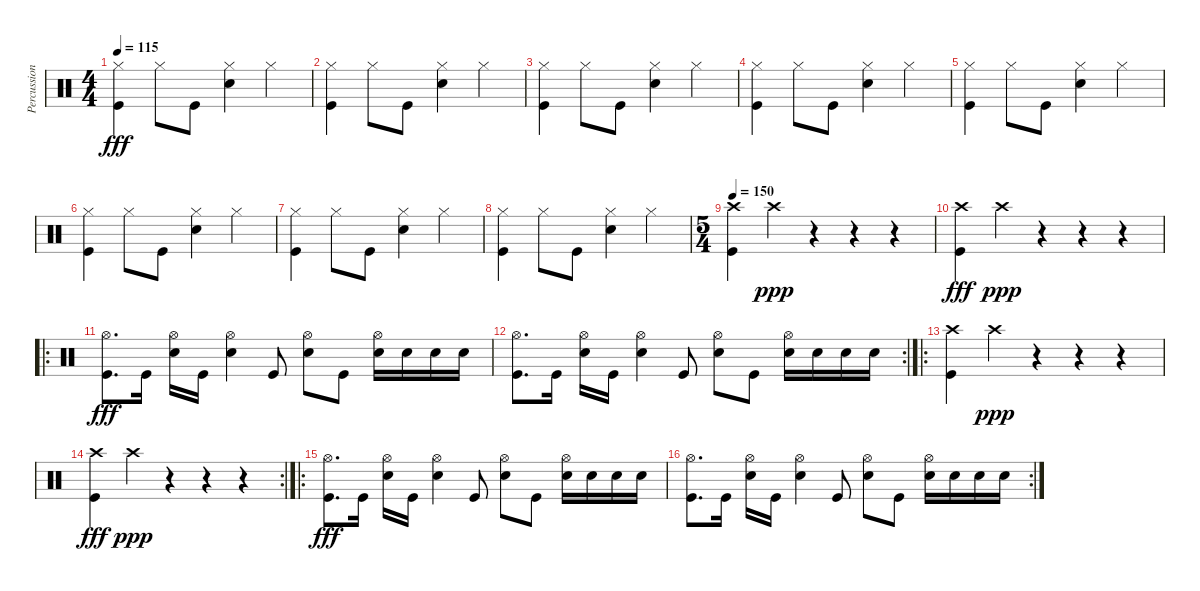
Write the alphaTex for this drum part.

\track ("Percussioni" "Percussion") {instrument percussion}
\staff {score}
\articulation defaults
\ts (4 4)
\tempo 115
\clef neutral
\ks c
("Hi-Hat (closed)" "Kick (hit)").4{dy fff} "Hi-Hat (closed)".8 "Kick (hit)".8 ("Hi-Hat (closed)" "Snare (hit) 2").4 "Hi-Hat (closed)".4 |
("Hi-Hat (closed)" "Kick (hit)").4 "Hi-Hat (closed)".8 "Kick (hit)".8 ("Hi-Hat (closed)" "Snare (hit) 2").4 "Hi-Hat (closed)".4 |
("Hi-Hat (closed)" "Kick (hit)").4 "Hi-Hat (closed)".8 "Kick (hit)".8 ("Hi-Hat (closed)" "Snare (hit) 2").4 "Hi-Hat (closed)".4 |
("Hi-Hat (closed)" "Kick (hit)").4 "Hi-Hat (closed)".8 "Kick (hit)".8 ("Hi-Hat (closed)" "Snare (hit) 2").4 "Hi-Hat (closed)".4 |
("Hi-Hat (closed)" "Kick (hit)").4 "Hi-Hat (closed)".8 "Kick (hit)".8 ("Hi-Hat (closed)" "Snare (hit) 2").4 "Hi-Hat (closed)".4 |
("Hi-Hat (closed)" "Kick (hit)").4 "Hi-Hat (closed)".8 "Kick (hit)".8 ("Hi-Hat (closed)" "Snare (hit) 2").4 "Hi-Hat (closed)".4 |
("Hi-Hat (closed)" "Kick (hit)").4 "Hi-Hat (closed)".8 "Kick (hit)".8 ("Hi-Hat (closed)" "Snare (hit) 2").4 "Hi-Hat (closed)".4 |
("Hi-Hat (closed)" "Kick (hit)").4 "Hi-Hat (closed)".8 "Kick (hit)".8 ("Hi-Hat (closed)" "Snare (hit) 2").4 "Hi-Hat (closed)".4 |
\ts (5 4)
\tempo 150
("Crash high (hit)" "Kick (hit)").4 "Crash high (hit)".4{dy ppp} r.4 r.4 r.4 |
("Crash high (hit)" "Kick (hit)").4{dy fff} "Crash high (hit)".4{dy ppp} r.4 r.4 r.4 |
\ro
("Hi-Hat (open)" "Kick (hit)").8{d dy fff} "Kick (hit)".16 ("Hi-Hat (open)" "Snare (hit) 2").16 "Kick (hit)".16 ("Hi-Hat (open)" "Snare (hit) 2").4 "Kick (hit)".8 ("Hi-Hat (open)" "Snare (hit) 2").8 "Kick (hit)".8 ("Hi-Hat (open)" "Snare (hit) 2").16 "Snare (hit) 2".16 "Snare (hit) 2".16 "Snare (hit) 2".16 |
\rc 2
("Hi-Hat (open)" "Kick (hit)").8{d} "Kick (hit)".16 ("Hi-Hat (open)" "Snare (hit) 2").16 "Kick (hit)".16 ("Hi-Hat (open)" "Snare (hit) 2").4 "Kick (hit)".8 ("Hi-Hat (open)" "Snare (hit) 2").8 "Kick (hit)".8 ("Hi-Hat (open)" "Snare (hit) 2").16 "Snare (hit) 2".16 "Snare (hit) 2".16 "Snare (hit) 2".16 |
\ro
("Crash high (hit)" "Kick (hit)").4 "Crash high (hit)".4{dy ppp} r.4 r.4 r.4 |
\rc 2
("Crash high (hit)" "Kick (hit)").4{dy fff} "Crash high (hit)".4{dy ppp} r.4 r.4 r.4 |
\ro
("Hi-Hat (open)" "Kick (hit)").8{d dy fff} "Kick (hit)".16 ("Hi-Hat (open)" "Snare (hit) 2").16 "Kick (hit)".16 ("Hi-Hat (open)" "Snare (hit) 2").4 "Kick (hit)".8 ("Hi-Hat (open)" "Snare (hit) 2").8 "Kick (hit)".8 ("Hi-Hat (open)" "Snare (hit) 2").16 "Snare (hit) 2".16 "Snare (hit) 2".16 "Snare (hit) 2".16 |
\rc 2
("Hi-Hat (open)" "Kick (hit)").8{d} "Kick (hit)".16 ("Hi-Hat (open)" "Snare (hit) 2").16 "Kick (hit)".16 ("Hi-Hat (open)" "Snare (hit) 2").4 "Kick (hit)".8 ("Hi-Hat (open)" "Snare (hit) 2").8 "Kick (hit)".8 ("Hi-Hat (open)" "Snare (hit) 2").16 "Snare (hit) 2".16 "Snare (hit) 2".16 "Snare (hit) 2".16
